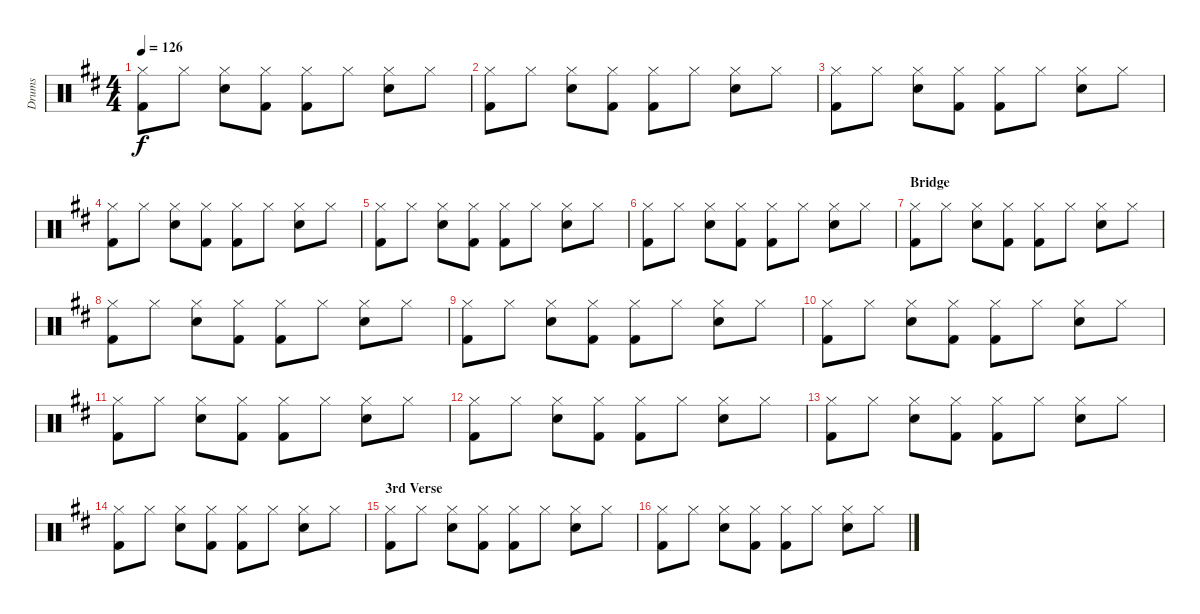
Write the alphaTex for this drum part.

\track ("Drums" "Drums") {instrument percussion}
\staff {score}
\articulation defaults
\ts (4 4)
\tempo 126
\clef neutral
\ks d
("Kick (hit) 2" "Hi-Hat (closed)").8{dy f} "Hi-Hat (closed)".8 ("Snare (hit) 2" "Hi-Hat (closed)").8 ("Kick (hit) 2" "Hi-Hat (closed)").8 ("Kick (hit) 2" "Hi-Hat (closed)").8 "Hi-Hat (closed)".8 ("Snare (hit) 2" "Hi-Hat (closed)").8 "Hi-Hat (closed)".8 |
("Kick (hit) 2" "Hi-Hat (closed)").8 "Hi-Hat (closed)".8 ("Snare (hit) 2" "Hi-Hat (closed)").8 ("Kick (hit) 2" "Hi-Hat (closed)").8 ("Kick (hit) 2" "Hi-Hat (closed)").8 "Hi-Hat (closed)".8 ("Snare (hit) 2" "Hi-Hat (closed)").8 "Hi-Hat (closed)".8 |
("Kick (hit) 2" "Hi-Hat (closed)").8 "Hi-Hat (closed)".8 ("Snare (hit) 2" "Hi-Hat (closed)").8 ("Kick (hit) 2" "Hi-Hat (closed)").8 ("Kick (hit) 2" "Hi-Hat (closed)").8 "Hi-Hat (closed)".8 ("Snare (hit) 2" "Hi-Hat (closed)").8 "Hi-Hat (closed)".8 |
("Kick (hit) 2" "Hi-Hat (closed)").8 "Hi-Hat (closed)".8 ("Snare (hit) 2" "Hi-Hat (closed)").8 ("Kick (hit) 2" "Hi-Hat (closed)").8 ("Kick (hit) 2" "Hi-Hat (closed)").8 "Hi-Hat (closed)".8 ("Snare (hit) 2" "Hi-Hat (closed)").8 "Hi-Hat (closed)".8 |
("Kick (hit) 2" "Hi-Hat (closed)").8 "Hi-Hat (closed)".8 ("Snare (hit) 2" "Hi-Hat (closed)").8 ("Kick (hit) 2" "Hi-Hat (closed)").8 ("Kick (hit) 2" "Hi-Hat (closed)").8 "Hi-Hat (closed)".8 ("Snare (hit) 2" "Hi-Hat (closed)").8 "Hi-Hat (closed)".8 |
("Kick (hit) 2" "Hi-Hat (closed)").8 "Hi-Hat (closed)".8 ("Snare (hit) 2" "Hi-Hat (closed)").8 ("Kick (hit) 2" "Hi-Hat (closed)").8 ("Kick (hit) 2" "Hi-Hat (closed)").8 "Hi-Hat (closed)".8 ("Snare (hit) 2" "Hi-Hat (closed)").8 "Hi-Hat (closed)".8 |
\section ("" "Bridge")
("Kick (hit) 2" "Hi-Hat (closed)").8 "Hi-Hat (closed)".8 ("Snare (hit) 2" "Hi-Hat (closed)").8 ("Kick (hit) 2" "Hi-Hat (closed)").8 ("Kick (hit) 2" "Hi-Hat (closed)").8 "Hi-Hat (closed)".8 ("Snare (hit) 2" "Hi-Hat (closed)").8 "Hi-Hat (closed)".8 |
("Kick (hit) 2" "Hi-Hat (closed)").8 "Hi-Hat (closed)".8 ("Snare (hit) 2" "Hi-Hat (closed)").8 ("Kick (hit) 2" "Hi-Hat (closed)").8 ("Kick (hit) 2" "Hi-Hat (closed)").8 "Hi-Hat (closed)".8 ("Snare (hit) 2" "Hi-Hat (closed)").8 "Hi-Hat (closed)".8 |
("Kick (hit) 2" "Hi-Hat (closed)").8 "Hi-Hat (closed)".8 ("Snare (hit) 2" "Hi-Hat (closed)").8 ("Kick (hit) 2" "Hi-Hat (closed)").8 ("Kick (hit) 2" "Hi-Hat (closed)").8 "Hi-Hat (closed)".8 ("Snare (hit) 2" "Hi-Hat (closed)").8 "Hi-Hat (closed)".8 |
("Kick (hit) 2" "Hi-Hat (closed)").8 "Hi-Hat (closed)".8 ("Snare (hit) 2" "Hi-Hat (closed)").8 ("Kick (hit) 2" "Hi-Hat (closed)").8 ("Kick (hit) 2" "Hi-Hat (closed)").8 "Hi-Hat (closed)".8 ("Snare (hit) 2" "Hi-Hat (closed)").8 "Hi-Hat (closed)".8 |
("Kick (hit) 2" "Hi-Hat (closed)").8 "Hi-Hat (closed)".8 ("Snare (hit) 2" "Hi-Hat (closed)").8 ("Kick (hit) 2" "Hi-Hat (closed)").8 ("Kick (hit) 2" "Hi-Hat (closed)").8 "Hi-Hat (closed)".8 ("Snare (hit) 2" "Hi-Hat (closed)").8 "Hi-Hat (closed)".8 |
("Kick (hit) 2" "Hi-Hat (closed)").8 "Hi-Hat (closed)".8 ("Snare (hit) 2" "Hi-Hat (closed)").8 ("Kick (hit) 2" "Hi-Hat (closed)").8 ("Kick (hit) 2" "Hi-Hat (closed)").8 "Hi-Hat (closed)".8 ("Snare (hit) 2" "Hi-Hat (closed)").8 "Hi-Hat (closed)".8 |
("Kick (hit) 2" "Hi-Hat (closed)").8 "Hi-Hat (closed)".8 ("Snare (hit) 2" "Hi-Hat (closed)").8 ("Kick (hit) 2" "Hi-Hat (closed)").8 ("Kick (hit) 2" "Hi-Hat (closed)").8 "Hi-Hat (closed)".8 ("Snare (hit) 2" "Hi-Hat (closed)").8 "Hi-Hat (closed)".8 |
("Kick (hit) 2" "Hi-Hat (closed)").8 "Hi-Hat (closed)".8 ("Snare (hit) 2" "Hi-Hat (closed)").8 ("Kick (hit) 2" "Hi-Hat (closed)").8 ("Kick (hit) 2" "Hi-Hat (closed)").8 "Hi-Hat (closed)".8 ("Snare (hit) 2" "Hi-Hat (closed)").8 "Hi-Hat (closed)".8 |
\section ("" "3rd Verse")
("Kick (hit) 2" "Hi-Hat (closed)").8 "Hi-Hat (closed)".8 ("Snare (hit) 2" "Hi-Hat (closed)").8 ("Kick (hit) 2" "Hi-Hat (closed)").8 ("Kick (hit) 2" "Hi-Hat (closed)").8 "Hi-Hat (closed)".8 ("Snare (hit) 2" "Hi-Hat (closed)").8 "Hi-Hat (closed)".8 |
("Kick (hit) 2" "Hi-Hat (closed)").8 "Hi-Hat (closed)".8 ("Snare (hit) 2" "Hi-Hat (closed)").8 ("Kick (hit) 2" "Hi-Hat (closed)").8 ("Kick (hit) 2" "Hi-Hat (closed)").8 "Hi-Hat (closed)".8 ("Snare (hit) 2" "Hi-Hat (closed)").8 "Hi-Hat (closed)".8
